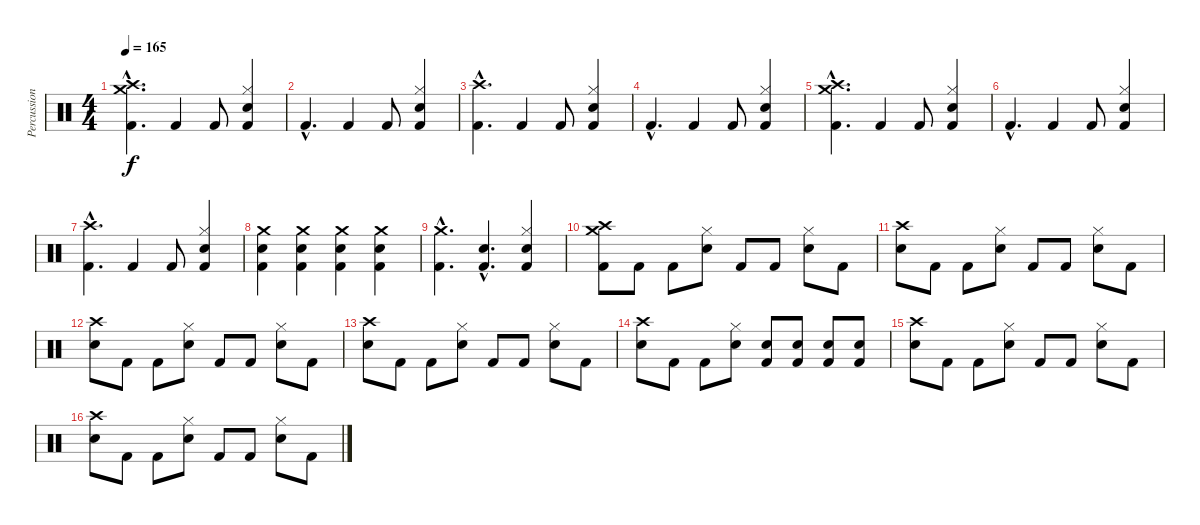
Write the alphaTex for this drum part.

\track ("Percussion" "Percussion") {instrument percussion}
\staff {score}
\articulation defaults
\ts (4 4)
\tempo 165
\clef neutral
\ks c
("Crash high (hit)"{hac} "Crash medium (hit)"{hac} "Kick (hit) 2"{hac}).4{d dy f} "Kick (hit) 2".4 "Kick (hit) 2".8 ("Hi-Hat (closed)" "Electric Snare (hit)" "Kick (hit) 2").4 |
"Kick (hit) 2"{hac}.4{d} "Kick (hit) 2".4 "Kick (hit) 2".8 ("Hi-Hat (closed)" "Electric Snare (hit)" "Kick (hit) 2").4 |
("Crash high (hit)"{hac} "Kick (hit) 2"{hac}).4{d} "Kick (hit) 2".4 "Kick (hit) 2".8 ("Hi-Hat (closed)" "Electric Snare (hit)" "Kick (hit) 2").4 |
"Kick (hit) 2"{hac}.4{d} "Kick (hit) 2".4 "Kick (hit) 2".8 ("Hi-Hat (closed)" "Electric Snare (hit)" "Kick (hit) 2").4 |
("Crash high (hit)"{hac} "Crash medium (hit)"{hac} "Kick (hit) 2"{hac}).4{d} "Kick (hit) 2".4 "Kick (hit) 2".8 ("Hi-Hat (closed)" "Electric Snare (hit)" "Kick (hit) 2").4 |
"Kick (hit) 2"{hac}.4{d} "Kick (hit) 2".4 "Kick (hit) 2".8 ("Hi-Hat (closed)" "Electric Snare (hit)" "Kick (hit) 2").4 |
("Crash high (hit)"{hac} "Kick (hit) 2"{hac}).4{d} "Kick (hit) 2".4 "Kick (hit) 2".8 ("Hi-Hat (closed)" "Electric Snare (hit)" "Kick (hit) 2").4 |
("Crash medium (hit)" "Electric Snare (hit)" "Kick (hit) 2").4 ("Crash medium (hit)" "Electric Snare (hit)" "Kick (hit) 2").4 ("Crash medium (hit)" "Electric Snare (hit)" "Kick (hit) 2").4 ("Crash medium (hit)" "Electric Snare (hit)" "Kick (hit) 2").4 |
("Crash medium (hit)"{hac} "Kick (hit) 2"{hac}).4{d} ("Electric Snare (hit)"{hac} "Kick (hit) 2"{hac}).4{d} ("Hi-Hat (closed)" "Electric Snare (hit)" "Kick (hit) 2").4 |
("Crash high (hit)" "Crash medium (hit)" "Kick (hit) 2").8 "Kick (hit) 2".8 "Kick (hit) 2".8 ("Hi-Hat (closed)" "Electric Snare (hit)").8 "Kick (hit) 2".8 "Kick (hit) 2".8 ("Hi-Hat (closed)" "Electric Snare (hit)").8 "Kick (hit) 2".8 |
("Crash high (hit)" "Electric Snare (hit)").8 "Kick (hit) 2".8 "Kick (hit) 2".8 ("Hi-Hat (closed)" "Electric Snare (hit)").8 "Kick (hit) 2".8 "Kick (hit) 2".8 ("Hi-Hat (closed)" "Electric Snare (hit)").8 "Kick (hit) 2".8 |
("Crash high (hit)" "Electric Snare (hit)").8 "Kick (hit) 2".8 "Kick (hit) 2".8 ("Hi-Hat (closed)" "Electric Snare (hit)").8 "Kick (hit) 2".8 "Kick (hit) 2".8 ("Hi-Hat (closed)" "Electric Snare (hit)").8 "Kick (hit) 2".8 |
("Crash high (hit)" "Electric Snare (hit)").8 "Kick (hit) 2".8 "Kick (hit) 2".8 ("Hi-Hat (closed)" "Electric Snare (hit)").8 "Kick (hit) 2".8 "Kick (hit) 2".8 ("Hi-Hat (closed)" "Electric Snare (hit)").8 "Kick (hit) 2".8 |
("Crash high (hit)" "Electric Snare (hit)").8 "Kick (hit) 2".8 "Kick (hit) 2".8 ("Hi-Hat (closed)" "Electric Snare (hit)").8 ("Electric Snare (hit)" "Kick (hit) 2").8 ("Electric Snare (hit)" "Kick (hit) 2").8 ("Electric Snare (hit)" "Kick (hit) 2").8 ("Electric Snare (hit)" "Kick (hit) 2").8 |
("Crash high (hit)" "Electric Snare (hit)").8 "Kick (hit) 2".8 "Kick (hit) 2".8 ("Hi-Hat (closed)" "Electric Snare (hit)").8 "Kick (hit) 2".8 "Kick (hit) 2".8 ("Hi-Hat (closed)" "Electric Snare (hit)").8 "Kick (hit) 2".8 |
("Crash high (hit)" "Electric Snare (hit)").8 "Kick (hit) 2".8 "Kick (hit) 2".8 ("Hi-Hat (closed)" "Electric Snare (hit)").8 "Kick (hit) 2".8 "Kick (hit) 2".8 ("Hi-Hat (closed)" "Electric Snare (hit)").8 "Kick (hit) 2".8
